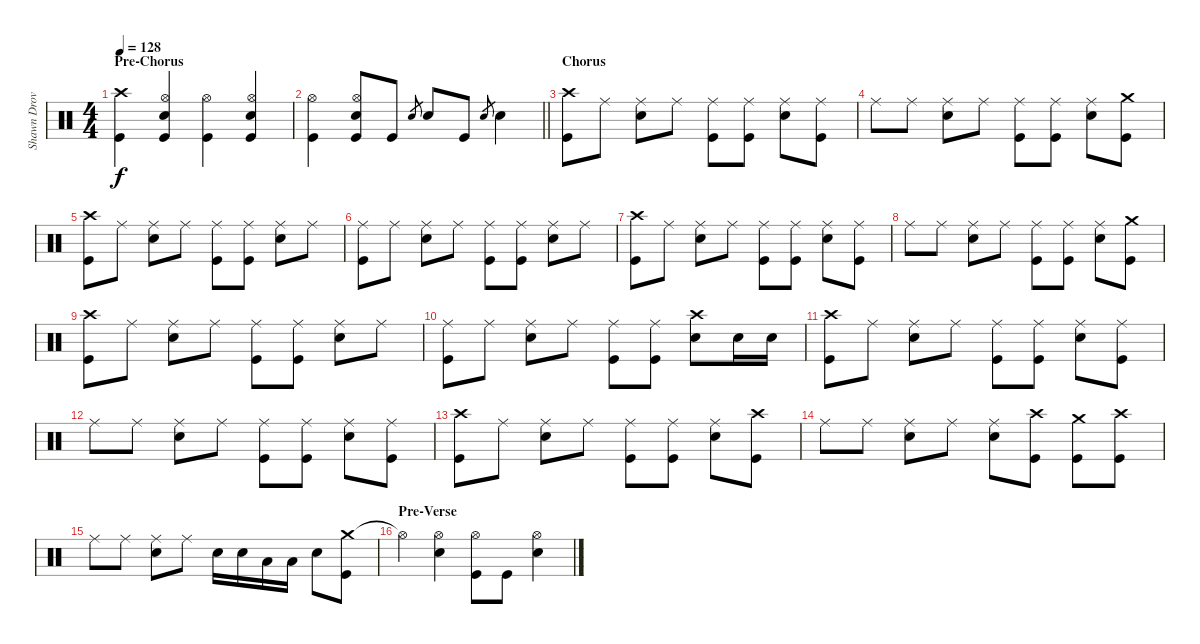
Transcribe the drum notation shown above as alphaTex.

\track ("Shawn Drover" "Shawn Drov") {instrument percussion}
\staff {score}
\articulation defaults
\ts (4 4)
\section ("" "Pre-Chorus")
\tempo 128
\clef neutral
\ks c
("Crash high (hit)" "Kick (hit)").4{dy f} ("Hi-Hat (open)" "Snare (hit) 2" "Kick (hit)").4 ("Hi-Hat (open)" "Kick (hit)").4 ("Hi-Hat (open)" "Snare (hit) 2" "Kick (hit)").4 |
\barLineRight lightlight
("Hi-Hat (open)" "Kick (hit)").4 ("Hi-Hat (open)" "Snare (hit) 2" "Kick (hit)").8 "Kick (hit)".8 "Snare (hit) 2".8{gr} "Snare (hit) 2".8 "Kick (hit)".8 "Snare (hit) 2".8{gr} "Snare (hit) 2".4 |
\section ("" "Chorus")
("Crash high (hit)" "Kick (hit)").8 "Ride (middle)".8 ("Ride (middle)" "Snare (hit) 2").8 "Ride (middle)".8 ("Ride (middle)" "Kick (hit)").8 ("Ride (middle)" "Kick (hit)").8 ("Ride (middle)" "Snare (hit) 2").8 ("Ride (middle)" "Kick (hit)").8 |
"Ride (middle)".8 "Ride (middle)".8 ("Ride (middle)" "Snare (hit) 2").8 "Ride (middle)".8 ("Ride (middle)" "Kick (hit)").8 ("Ride (middle)" "Kick (hit)").8 ("Ride (middle)" "Snare (hit) 2").8 ("Crash medium (hit)" "Kick (hit)").8 |
("Crash high (hit)" "Kick (hit)").8 "Ride (middle)".8 ("Ride (middle)" "Snare (hit) 2").8 "Ride (middle)".8 ("Ride (middle)" "Kick (hit)").8 ("Ride (middle)" "Kick (hit)").8 ("Ride (middle)" "Snare (hit) 2").8 "Ride (middle)".8 |
("Ride (middle)" "Kick (hit)").8 "Ride (middle)".8 ("Ride (middle)" "Snare (hit) 2").8 "Ride (middle)".8 ("Ride (middle)" "Kick (hit)").8 ("Ride (middle)" "Kick (hit)").8 ("Ride (middle)" "Snare (hit) 2").8 "Ride (middle)".8 |
("Crash high (hit)" "Kick (hit)").8 "Ride (middle)".8 ("Ride (middle)" "Snare (hit) 2").8 "Ride (middle)".8 ("Ride (middle)" "Kick (hit)").8 ("Ride (middle)" "Kick (hit)").8 ("Ride (middle)" "Snare (hit) 2").8 ("Ride (middle)" "Kick (hit)").8 |
"Ride (middle)".8 "Ride (middle)".8 ("Ride (middle)" "Snare (hit) 2").8 "Ride (middle)".8 ("Ride (middle)" "Kick (hit)").8 ("Ride (middle)" "Kick (hit)").8 ("Ride (middle)" "Snare (hit) 2").8 ("Crash medium (hit)" "Kick (hit)").8 |
("Crash high (hit)" "Kick (hit)").8 "Ride (middle)".8 ("Ride (middle)" "Snare (hit) 2").8 "Ride (middle)".8 ("Ride (middle)" "Kick (hit)").8 ("Ride (middle)" "Kick (hit)").8 ("Ride (middle)" "Snare (hit) 2").8 "Ride (middle)".8 |
("Ride (middle)" "Kick (hit)").8 "Ride (middle)".8 ("Ride (middle)" "Snare (hit) 2").8 "Ride (middle)".8 ("Ride (middle)" "Kick (hit)").8 ("Ride (middle)" "Kick (hit)").8 ("Crash high (hit)" "Snare (hit) 2").8 "Snare (hit) 2".16 "Snare (hit) 2".16 |
("Crash high (hit)" "Kick (hit)").8 "Ride (middle)".8 ("Ride (middle)" "Snare (hit) 2").8 "Ride (middle)".8 ("Ride (middle)" "Kick (hit)").8 ("Ride (middle)" "Kick (hit)").8 ("Ride (middle)" "Snare (hit) 2").8 ("Ride (middle)" "Kick (hit)").8 |
"Ride (middle)".8 "Ride (middle)".8 ("Ride (middle)" "Snare (hit) 2").8 "Ride (middle)".8 ("Ride (middle)" "Kick (hit)").8 ("Ride (middle)" "Kick (hit)").8 ("Ride (middle)" "Snare (hit) 2").8 ("Ride (middle)" "Kick (hit)").8 |
("Crash high (hit)" "Kick (hit)").8 "Ride (middle)".8 ("Ride (middle)" "Snare (hit) 2").8 "Ride (middle)".8 ("Ride (middle)" "Kick (hit)").8 ("Ride (middle)" "Kick (hit)").8 ("Ride (middle)" "Snare (hit) 2").8 ("Crash high (hit)" "Kick (hit)").8 |
"Ride (middle)".8 "Ride (middle)".8 ("Ride (middle)" "Snare (hit) 2").8 "Ride (middle)".8 ("Ride (middle)" "Snare (hit) 2").8 ("Crash high (hit)" "Kick (hit)").8 ("Crash medium (hit)" "Kick (hit)").8 ("Crash high (hit)" "Kick (hit)").8 |
"Ride (middle)".8 "Ride (middle)".8 ("Ride (middle)" "Snare (hit) 2").8 "Ride (middle)".8 "Snare (hit) 2".16 "Snare (hit) 2".16 "Low Tom (hit)".16 "Low Tom (hit)".16 "Snare (hit) 2".8 ("Crash medium (hit)" "Kick (hit)").8 |
\section ("" "Pre-Verse")
"Hi-Hat (open)"{t}.4 ("Hi-Hat (open)" "Snare (hit) 2").4 ("Hi-Hat (open)" "Kick (hit)").8 "Kick (hit)".8 ("Hi-Hat (open)" "Snare (hit) 2").4
